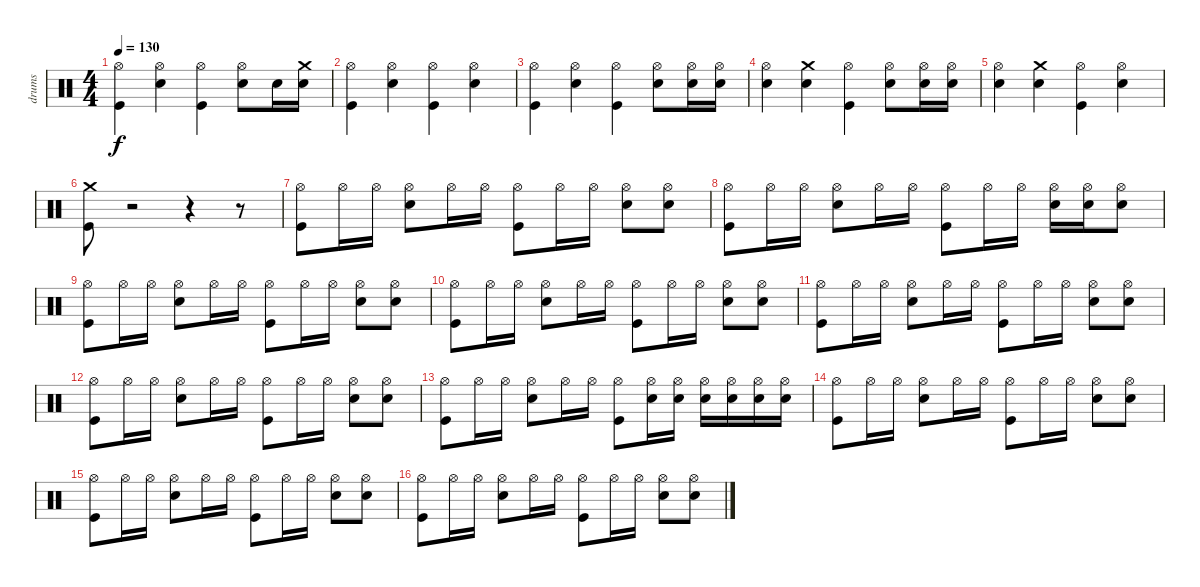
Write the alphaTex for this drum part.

\track ("drums" "drums") {instrument percussion}
\staff {score}
\articulation defaults
\ts (4 4)
\tempo 130
\clef neutral
\ks c
("Hi-Hat (open)" "Kick (hit)").4{dy f} ("Hi-Hat (open)" "Snare (hit) 2").4 ("Hi-Hat (open)" "Kick (hit)").4 ("Hi-Hat (open)" "Snare (hit) 2").8 "Snare (hit) 2".16 ("Crash medium (hit)" "Snare (hit) 2").16 |
("Hi-Hat (open)" "Kick (hit)").4 ("Hi-Hat (open)" "Snare (hit) 2").4 ("Hi-Hat (open)" "Kick (hit)").4 ("Hi-Hat (open)" "Snare (hit) 2").4 |
("Hi-Hat (open)" "Kick (hit)").4 ("Hi-Hat (open)" "Snare (hit) 2").4 ("Hi-Hat (open)" "Kick (hit)").4 ("Hi-Hat (open)" "Snare (hit) 2").8 ("Hi-Hat (open)" "Snare (hit) 2").16 ("Hi-Hat (open)" "Snare (hit) 2").16 |
("Hi-Hat (open)" "Snare (hit) 2").4 ("Crash medium (hit)" "Snare (hit) 2").4 ("Hi-Hat (open)" "Kick (hit)").4 ("Hi-Hat (open)" "Snare (hit) 2").8 ("Hi-Hat (open)" "Snare (hit) 2").16 ("Hi-Hat (open)" "Snare (hit) 2").16 |
("Hi-Hat (open)" "Snare (hit) 2").4 ("Crash medium (hit)" "Snare (hit) 2").4 ("Hi-Hat (open)" "Kick (hit)").4 ("Hi-Hat (open)" "Snare (hit) 2").4 |
("Crash medium (hit)" "Kick (hit)").8 r.2 r.4 r.8 |
("Hi-Hat (open)" "Kick (hit)").8 "Hi-Hat (open)".16 "Hi-Hat (open)".16 ("Hi-Hat (open)" "Snare (hit) 2").8 "Hi-Hat (open)".16 "Hi-Hat (open)".16 ("Hi-Hat (open)" "Kick (hit)").8 "Hi-Hat (open)".16 "Hi-Hat (open)".16 ("Snare (hit) 2" "Hi-Hat (open)").8 ("Snare (hit) 2" "Hi-Hat (open)").8 |
("Hi-Hat (open)" "Kick (hit)").8 "Hi-Hat (open)".16 "Hi-Hat (open)".16 ("Hi-Hat (open)" "Snare (hit) 2").8 "Hi-Hat (open)".16 "Hi-Hat (open)".16 ("Hi-Hat (open)" "Kick (hit)").8 "Hi-Hat (open)".16 "Hi-Hat (open)".16 ("Snare (hit) 2" "Hi-Hat (open)").16 ("Snare (hit) 2" "Hi-Hat (open)").16 ("Hi-Hat (open)" "Snare (hit) 2").8 |
("Hi-Hat (open)" "Kick (hit)").8 "Hi-Hat (open)".16 "Hi-Hat (open)".16 ("Hi-Hat (open)" "Snare (hit) 2").8 "Hi-Hat (open)".16 "Hi-Hat (open)".16 ("Hi-Hat (open)" "Kick (hit)").8 "Hi-Hat (open)".16 "Hi-Hat (open)".16 ("Snare (hit) 2" "Hi-Hat (open)").8 ("Snare (hit) 2" "Hi-Hat (open)").8 |
("Hi-Hat (open)" "Kick (hit)").8 "Hi-Hat (open)".16 "Hi-Hat (open)".16 ("Hi-Hat (open)" "Snare (hit) 2").8 "Hi-Hat (open)".16 "Hi-Hat (open)".16 ("Hi-Hat (open)" "Kick (hit)").8 "Hi-Hat (open)".16 "Hi-Hat (open)".16 ("Snare (hit) 2" "Hi-Hat (open)").8 ("Snare (hit) 2" "Hi-Hat (open)").8 |
("Hi-Hat (open)" "Kick (hit)").8 "Hi-Hat (open)".16 "Hi-Hat (open)".16 ("Hi-Hat (open)" "Snare (hit) 2").8 "Hi-Hat (open)".16 "Hi-Hat (open)".16 ("Hi-Hat (open)" "Kick (hit)").8 "Hi-Hat (open)".16 "Hi-Hat (open)".16 ("Snare (hit) 2" "Hi-Hat (open)").8 ("Snare (hit) 2" "Hi-Hat (open)").8 |
("Hi-Hat (open)" "Kick (hit)").8 "Hi-Hat (open)".16 "Hi-Hat (open)".16 ("Hi-Hat (open)" "Snare (hit) 2").8 "Hi-Hat (open)".16 "Hi-Hat (open)".16 ("Hi-Hat (open)" "Kick (hit)").8 "Hi-Hat (open)".16 "Hi-Hat (open)".16 ("Snare (hit) 2" "Hi-Hat (open)").8 ("Snare (hit) 2" "Hi-Hat (open)").8 |
("Hi-Hat (open)" "Kick (hit)").8 "Hi-Hat (open)".16 "Hi-Hat (open)".16 ("Hi-Hat (open)" "Snare (hit) 2").8 "Hi-Hat (open)".16 "Hi-Hat (open)".16 ("Hi-Hat (open)" "Kick (hit)").8 ("Hi-Hat (open)" "Snare (hit) 2").16 ("Hi-Hat (open)" "Snare (hit) 2").16 ("Snare (hit) 2" "Hi-Hat (open)").16 ("Snare (hit) 2" "Hi-Hat (open)").16 ("Hi-Hat (open)" "Snare (hit) 2").16 ("Hi-Hat (open)" "Snare (hit) 2").16 |
("Hi-Hat (open)" "Kick (hit)").8 "Hi-Hat (open)".16 "Hi-Hat (open)".16 ("Hi-Hat (open)" "Snare (hit) 2").8 "Hi-Hat (open)".16 "Hi-Hat (open)".16 ("Hi-Hat (open)" "Kick (hit)").8 "Hi-Hat (open)".16 "Hi-Hat (open)".16 ("Snare (hit) 2" "Hi-Hat (open)").8 ("Snare (hit) 2" "Hi-Hat (open)").8 |
("Hi-Hat (open)" "Kick (hit)").8 "Hi-Hat (open)".16 "Hi-Hat (open)".16 ("Hi-Hat (open)" "Snare (hit) 2").8 "Hi-Hat (open)".16 "Hi-Hat (open)".16 ("Hi-Hat (open)" "Kick (hit)").8 "Hi-Hat (open)".16 "Hi-Hat (open)".16 ("Snare (hit) 2" "Hi-Hat (open)").8 ("Snare (hit) 2" "Hi-Hat (open)").8 |
("Hi-Hat (open)" "Kick (hit)").8 "Hi-Hat (open)".16 "Hi-Hat (open)".16 ("Hi-Hat (open)" "Snare (hit) 2").8 "Hi-Hat (open)".16 "Hi-Hat (open)".16 ("Hi-Hat (open)" "Kick (hit)").8 "Hi-Hat (open)".16 "Hi-Hat (open)".16 ("Snare (hit) 2" "Hi-Hat (open)").8 ("Snare (hit) 2" "Hi-Hat (open)").8
